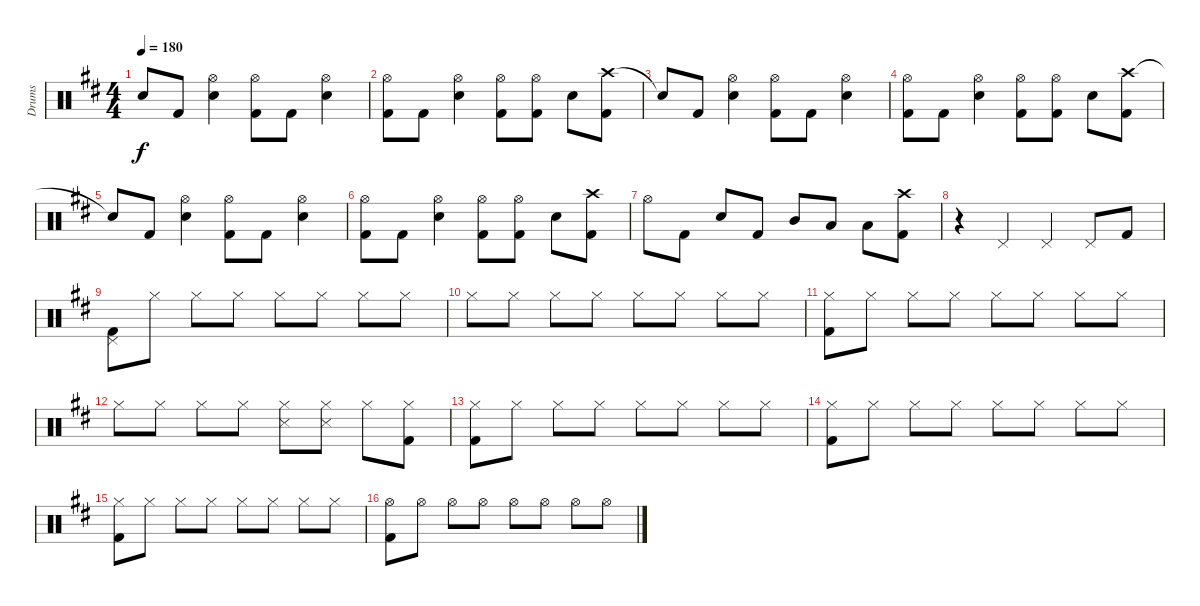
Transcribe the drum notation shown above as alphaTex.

\track ("Drums" "Drums") {instrument percussion}
\staff {score}
\articulation defaults
\ts (4 4)
\tempo 180
\clef neutral
\ks bminor "Snare (hit)"{t}.8{dy f} "Kick (hit) 2".8
("Hi-Hat (open)" "Electric Snare (hit)").4 ("Hi-Hat (open)" "Kick (hit) 2").8 "Kick (hit) 2".8 ("Hi-Hat (open)" "Electric Snare (hit)").4 |
("Hi-Hat (open)" "Kick (hit) 2").8 "Kick (hit) 2".8 ("Hi-Hat (open)" "Electric Snare (hit)").4 ("Hi-Hat (open)" "Kick (hit) 2").8 ("Hi-Hat (open)" "Kick (hit) 2").8 "Electric Snare (hit)".8 ("Crash high (hit)" "Kick (hit) 2").8 |
"Snare (hit)"{t}.8 "Kick (hit) 2".8 ("Hi-Hat (open)" "Electric Snare (hit)").4 ("Hi-Hat (open)" "Kick (hit) 2").8 "Kick (hit) 2".8 ("Hi-Hat (open)" "Electric Snare (hit)").4 |
("Hi-Hat (open)" "Kick (hit) 2").8 "Kick (hit) 2".8 ("Hi-Hat (open)" "Electric Snare (hit)").4 ("Hi-Hat (open)" "Kick (hit) 2").8 ("Hi-Hat (open)" "Kick (hit) 2").8 "Electric Snare (hit)".8 ("Crash high (hit)" "Kick (hit) 2").8 |
"Snare (hit)"{t}.8 "Kick (hit) 2".8 ("Hi-Hat (open)" "Electric Snare (hit)").4 ("Hi-Hat (open)" "Kick (hit) 2").8 "Kick (hit) 2".8 ("Hi-Hat (open)" "Electric Snare (hit)").4 |
("Hi-Hat (open)" "Kick (hit) 2").8 "Kick (hit) 2".8 ("Hi-Hat (open)" "Electric Snare (hit)").4 ("Hi-Hat (open)" "Kick (hit) 2").8 ("Hi-Hat (open)" "Kick (hit) 2").8 "Electric Snare (hit)".8 ("Crash high (hit)" "Kick (hit) 2").8 |
"Hi-Hat (open)".8 "Kick (hit) 2".8 "Electric Snare (hit)".8 "Kick (hit) 2".8 "Mid Tom (hit)".8 "Low Tom (hit)".8 "Low Floor Tom (hit)".8 ("Crash high (hit)" "Kick (hit) 2").8 |
r.4 "Pedal Hi-Hat (hit)".4 "Pedal Hi-Hat (hit)".4 "Pedal Hi-Hat (hit)".8 "Kick (hit) 2".8 |
("Pedal Hi-Hat (hit)" "Kick (hit) 2").8 "Hi-Hat (closed)".8 "Hi-Hat (closed)".8 "Hi-Hat (closed)".8 "Hi-Hat (closed)".8 "Hi-Hat (closed)".8 "Hi-Hat (closed)".8 "Hi-Hat (closed)".8 |
"Hi-Hat (closed)".8 "Hi-Hat (closed)".8 "Hi-Hat (closed)".8 "Hi-Hat (closed)".8 "Hi-Hat (closed)".8 "Hi-Hat (closed)".8 "Hi-Hat (closed)".8 "Hi-Hat (closed)".8 |
("Hi-Hat (closed)" "Kick (hit) 2").8 "Hi-Hat (closed)".8 "Hi-Hat (closed)".8 "Hi-Hat (closed)".8 "Hi-Hat (closed)".8 "Hi-Hat (closed)".8 "Hi-Hat (closed)".8 "Hi-Hat (closed)".8 |
"Hi-Hat (closed)".8 "Hi-Hat (closed)".8 "Hi-Hat (closed)".8 "Hi-Hat (closed)".8 ("Hi-Hat (closed)" "Snare (side stick) 3").8 ("Hi-Hat (closed)" "Snare (side stick) 3").8 "Hi-Hat (closed)".8 ("Hi-Hat (closed)" "Kick (hit) 2").8 |
("Hi-Hat (closed)" "Kick (hit) 2").8 "Hi-Hat (closed)".8 "Hi-Hat (closed)".8 "Hi-Hat (closed)".8 "Hi-Hat (closed)".8 "Hi-Hat (closed)".8 "Hi-Hat (closed)".8 "Hi-Hat (closed)".8 |
("Hi-Hat (closed)" "Kick (hit) 2").8 "Hi-Hat (closed)".8 "Hi-Hat (closed)".8 "Hi-Hat (closed)".8 "Hi-Hat (closed)".8 "Hi-Hat (closed)".8 "Hi-Hat (closed)".8 "Hi-Hat (closed)".8 |
("Hi-Hat (closed)" "Kick (hit) 2").8 "Hi-Hat (closed)".8 "Hi-Hat (closed)".8 "Hi-Hat (closed)".8 "Hi-Hat (closed)".8 "Hi-Hat (closed)".8 "Hi-Hat (closed)".8 "Hi-Hat (closed)".8 |
("Hi-Hat (open)" "Kick (hit) 2").8 "Hi-Hat (open)".8 "Hi-Hat (open)".8 "Hi-Hat (open)".8 "Hi-Hat (open)".8 "Hi-Hat (open)".8 "Hi-Hat (open)".8 "Hi-Hat (open)".8
